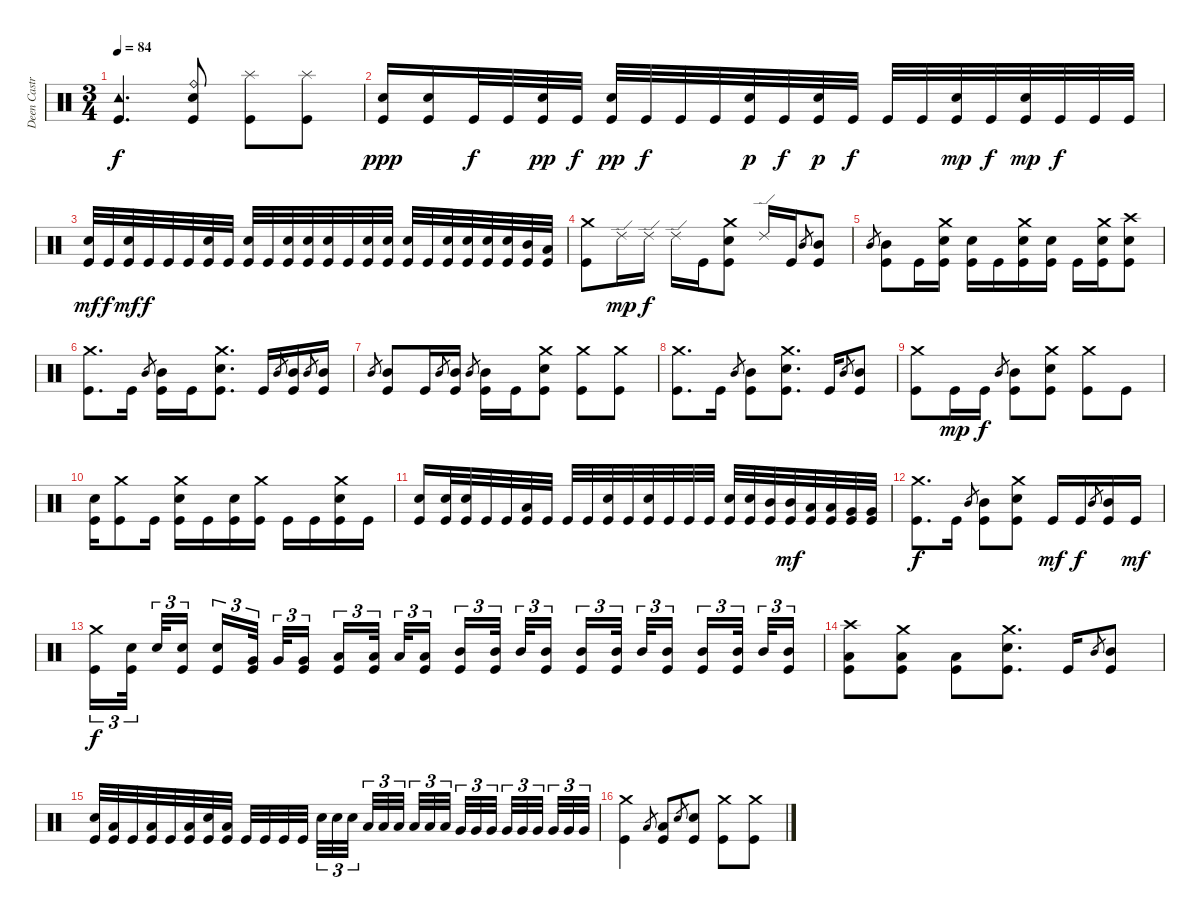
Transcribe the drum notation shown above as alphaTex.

\track ("Deen Castronovo" "Deen Castr") {instrument percussion}
\staff {score}
\articulation defaults
\ts (3 4)
\tempo 84
\clef neutral
\ks c
("Tambourine (hit)" "Kick (hit)").4{d dy f} ("Ride (bell)" "Snare (hit) 2" "Kick (hit)").8 ("Splash (hit)" "Kick (hit)").8 ("Splash (hit)" "Kick (hit)").8 |
("Snare (hit) 2" "Kick (hit)").16{dy ppp} ("Snare (hit) 2" "Kick (hit)").16 "Kick (hit)".32{dy f} "Kick (hit)".32 ("Snare (hit) 2" "Kick (hit)").32{dy pp} "Kick (hit)".32{dy f} ("Snare (hit) 2" "Kick (hit)").32{dy pp} "Kick (hit)".32{dy f} "Kick (hit)".32 "Kick (hit)".32 ("Snare (hit) 2" "Kick (hit)").32{dy p} "Kick (hit)".32{dy f} ("Snare (hit) 2" "Kick (hit)").32{dy p} "Kick (hit)".32{dy f} "Kick (hit)".32 "Kick (hit)".32 ("Snare (hit) 2" "Kick (hit)").32{dy mp} "Kick (hit)".32{dy f} ("Snare (hit) 2" "Kick (hit)").32{dy mp} "Kick (hit)".32{dy f} "Kick (hit)".32 "Kick (hit)".32 |
("Snare (hit) 2" "Kick (hit)").32{dy mf} "Kick (hit)".32{dy f} ("Snare (hit) 2" "Kick (hit)").32{dy mf} "Kick (hit)".32{dy f} "Kick (hit)".32 "Kick (hit)".32 ("Snare (hit) 2" "Kick (hit)").32 "Kick (hit)".32 ("Snare (hit) 2" "Kick (hit)").32 "Kick (hit)".32 ("Snare (hit) 2" "Kick (hit)").32 ("Snare (hit) 2" "Kick (hit)").32 ("Snare (hit) 2" "Kick (hit)").32 "Kick (hit)".32 ("Snare (hit) 2" "Kick (hit)").32 ("Snare (hit) 2" "Kick (hit)").32 ("Snare (hit) 2" "Kick (hit)").32 "Kick (hit)".32 ("Snare (hit) 2" "Kick (hit)").32 ("Snare (hit) 2" "Kick (hit)").32 ("Snare (hit) 2" "Kick (hit)").32 ("Snare (hit) 2" "Kick (hit)").32 ("Mid Tom (hit)" "Kick (hit)").32 ("Low Tom (hit)" "Kick (hit)").32 |
("Crash medium (hit)" "Kick (hit)").8 "Ride (edge) 2".16{dy mp} "Ride (edge) 2".16{dy f} "Ride (edge) 2".16 "Kick (hit)".16 ("Crash medium (hit)" "Snare (hit) 2" "Kick (hit)").8 "Ride (edge) 2".16 "Kick (hit)".16 "Mid Tom (hit)".8{gr} ("Mid Tom (hit)" "Kick (hit)").8 |
"Mid Tom (hit)".8{gr} ("Mid Tom (hit)" "Kick (hit)").8 "Kick (hit)".16 ("Crash medium (hit)" "Snare (hit) 2" "Kick (hit)").16 ("Snare (hit) 2" "Kick (hit)").16 "Kick (hit)".16 ("Crash medium (hit)" "Snare (hit) 2" "Kick (hit)").16 ("Snare (hit) 2" "Kick (hit)").16 "Kick (hit)".16 ("Crash medium (hit)" "Snare (hit) 2" "Kick (hit)").16 ("Crash high (hit)" "Snare (hit) 2" "Kick (hit)").8 |
("Crash medium (hit)" "Kick (hit)").8{d} "Kick (hit)".16 "Mid Tom (hit)".8{gr} ("Mid Tom (hit)" "Kick (hit)").16 "Kick (hit)".16 ("Crash medium (hit)" "Snare (hit) 2" "Kick (hit)").8{d} "Kick (hit)".16 "Mid Tom (hit)".8{gr} ("Mid Tom (hit)" "Kick (hit)").16 "Mid Tom (hit)".8{gr} ("Mid Tom (hit)" "Kick (hit)").16 |
"Mid Tom (hit)".8{gr} ("Mid Tom (hit)" "Kick (hit)").8 "Kick (hit)".16 "Mid Tom (hit)".8{gr} ("Mid Tom (hit)" "Kick (hit)").16 "Mid Tom (hit)".8{gr} ("Mid Tom (hit)" "Kick (hit)").16 "Kick (hit)".16 ("Crash medium (hit)" "Snare (hit) 2" "Kick (hit)").8 ("Crash medium (hit)" "Kick (hit)").8 ("Crash medium (hit)" "Kick (hit)").8 |
("Crash medium (hit)" "Kick (hit)").8{d} "Kick (hit)".16 "Mid Tom (hit)".8{gr} ("Mid Tom (hit)" "Kick (hit)").8 ("Crash medium (hit)" "Snare (hit) 2" "Kick (hit)").8{d} "Kick (hit)".16 "Mid Tom (hit)".8{gr} ("Mid Tom (hit)" "Kick (hit)").8 |
("Crash medium (hit)" "Kick (hit)").8 "Kick (hit)".16{dy mp} "Kick (hit)".16{dy f} "Mid Tom (hit)".8{gr} ("Mid Tom (hit)" "Kick (hit)").8 ("Crash medium (hit)" "Snare (hit) 2" "Kick (hit)").8 ("Crash medium (hit)" "Kick (hit)").8 "Kick (hit)".8 |
("Snare (hit) 2" "Kick (hit)").16 ("Crash medium (hit)" "Kick (hit)").8 "Kick (hit)".16 ("Crash medium (hit)" "Snare (hit) 2" "Kick (hit)").16 "Kick (hit)".16 ("Snare (hit) 2" "Kick (hit)").16 ("Crash medium (hit)" "Kick (hit)").16 "Kick (hit)".16 "Kick (hit)".16 ("Crash medium (hit)" "Snare (hit) 2" "Kick (hit)").16 "Kick (hit)".16 |
("Snare (hit) 2" "Kick (hit)").16 ("Snare (hit) 2" "Kick (hit)").32 ("Snare (hit) 2" "Kick (hit)").32 "Kick (hit)".32 "Kick (hit)".32 ("Low Tom (hit)" "Kick (hit)").32 "Kick (hit)".32 "Kick (hit)".32 "Kick (hit)".32 ("Snare (hit) 2" "Kick (hit)").32 "Kick (hit)".32 ("Snare (hit) 2" "Kick (hit)").32 "Kick (hit)".32 "Kick (hit)".32 "Kick (hit)".32 ("Snare (hit) 2" "Kick (hit)").32 ("Snare (hit) 2" "Kick (hit)").32 ("Mid Tom (hit)" "Kick (hit)").32 ("Mid Tom (hit)" "Kick (hit)").32{dy mf} ("Low Tom (hit)" "Kick (hit)").32 ("Low Tom (hit)" "Kick (hit)").32 ("Very Low Tom (hit)" "Kick (hit)").32 ("Very Low Tom (hit)" "Kick (hit)").32 |
("Crash medium (hit)" "Kick (hit)").8{d dy f} "Kick (hit)".16 "Mid Tom (hit)".8{gr} ("Mid Tom (hit)" "Kick (hit)").8 ("Crash medium (hit)" "Snare (hit) 2" "Kick (hit)").8 "Kick (hit)".16{dy mf} "Kick (hit)".16{dy f} "Mid Tom (hit)".8{gr} ("Mid Tom (hit)" "Kick (hit)").16 "Kick (hit)".16{dy mf} |
("Crash medium (hit)" "Kick (hit)").16{tu (3 2) dy f} ("Snare (hit) 2" "Kick (hit)").32{tu (3 2)} "Snare (hit) 2".32{tu (3 2)} ("Snare (hit) 2" "Kick (hit)").16{tu (3 2)} ("Snare (hit) 2" "Kick (hit)").16{tu (3 2)} ("Very Low Tom (hit)" "Kick (hit)").32{tu (3 2)} "Very Low Tom (hit)".32{tu (3 2)} ("Very Low Tom (hit)" "Kick (hit)").16{tu (3 2)} ("Low Tom (hit)" "Kick (hit)").16{tu (3 2)} ("Low Tom (hit)" "Kick (hit)").32{tu (3 2)} "Low Tom (hit)".32{tu (3 2)} ("Low Tom (hit)" "Kick (hit)").16{tu (3 2)} ("Mid Tom (hit)" "Kick (hit)").16{tu (3 2)} ("Mid Tom (hit)" "Kick (hit)").32{tu (3 2)} "Mid Tom (hit)".32{tu (3 2)} ("Mid Tom (hit)" "Kick (hit)").16{tu (3 2)} ("Mid Tom (hit)" "Kick (hit)").16{tu (3 2)} ("Mid Tom (hit)" "Kick (hit)").32{tu (3 2)} "Mid Tom (hit)".32{tu (3 2)} ("Mid Tom (hit)" "Kick (hit)").16{tu (3 2)} ("Mid Tom (hit)" "Kick (hit)").16{tu (3 2)} ("Mid Tom (hit)" "Kick (hit)").32{tu (3 2)} "Mid Tom (hit)".32{tu (3 2)} ("Mid Tom (hit)" "Kick (hit)").16{tu (3 2)} |
("Crash high (hit)" "Low Tom (hit)" "Kick (hit)").8 ("Crash medium (hit)" "Low Tom (hit)" "Kick (hit)").8 ("Low Tom (hit)" "Kick (hit)").8 ("Crash medium (hit)" "Snare (hit) 2" "Kick (hit)").8{d} "Kick (hit)".16 "Mid Tom (hit)".8{gr} ("Mid Tom (hit)" "Kick (hit)").8 |
("Snare (hit) 2" "Kick (hit)").32 ("Low Tom (hit)" "Kick (hit)").32 "Kick (hit)".32 ("Low Tom (hit)" "Kick (hit)").32 "Kick (hit)".32 ("Low Tom (hit)" "Kick (hit)").32 ("Snare (hit) 2" "Kick (hit)").32 ("Low Tom (hit)" "Kick (hit)").32 "Kick (hit)".32 "Kick (hit)".32 "Kick (hit)".32 "Kick (hit)".32 "Snare (hit) 2".32{tu (3 2)} "Snare (hit) 2".32{tu (3 2)} "Snare (hit) 2".32{tu (3 2)} "Low Tom (hit)".32{tu (3 2)} "Low Tom (hit)".32{tu (3 2)} "Low Tom (hit)".32{tu (3 2)} "Low Tom (hit)".32{tu (3 2)} "Low Tom (hit)".32{tu (3 2)} "Low Tom (hit)".32{tu (3 2)} "Very Low Tom (hit)".32{tu (3 2)} "Very Low Tom (hit)".32{tu (3 2)} "Very Low Tom (hit)".32{tu (3 2)} "Very Low Tom (hit)".32{tu (3 2)} "Very Low Tom (hit)".32{tu (3 2)} "Very Low Tom (hit)".32{tu (3 2)} "Very Low Tom (hit)".32{tu (3 2)} "Very Low Tom (hit)".32{tu (3 2)} "Very Low Tom (hit)".32{tu (3 2)} |
("Crash medium (hit)" "Kick (hit)").4 "Low Tom (hit)".8{gr} ("Low Tom (hit)" "Kick (hit)").8 "Snare (hit) 2".8{gr} ("Snare (hit) 2" "Kick (hit)").8 ("Crash medium (hit)" "Kick (hit)").8 ("Crash medium (hit)" "Kick (hit)").8
